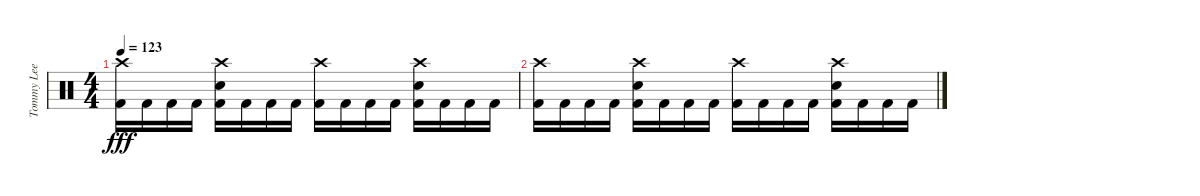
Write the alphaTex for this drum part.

\track ("Tommy Lee" "Tommy Lee") {instrument percussion}
\staff {score}
\articulation defaults
\ts (4 4)
\tempo 123
\clef neutral
\ks c
("Crash high (hit)" "Kick (hit) 2").16{dy fff} "Kick (hit) 2".16 "Kick (hit) 2".16 "Kick (hit) 2".16 ("Crash high (hit)" "Snare (hit) 2" "Kick (hit) 2").16 "Kick (hit) 2".16 "Kick (hit) 2".16 "Kick (hit) 2".16 ("Crash high (hit)" "Kick (hit) 2").16 "Kick (hit) 2".16 "Kick (hit) 2".16 "Kick (hit) 2".16 ("Crash high (hit)" "Snare (hit) 2" "Kick (hit) 2").16 "Kick (hit) 2".16 "Kick (hit) 2".16 "Kick (hit) 2".16 |
("Crash high (hit)" "Kick (hit) 2").16 "Kick (hit) 2".16 "Kick (hit) 2".16 "Kick (hit) 2".16 ("Crash high (hit)" "Snare (hit) 2" "Kick (hit) 2").16 "Kick (hit) 2".16 "Kick (hit) 2".16 "Kick (hit) 2".16 ("Crash high (hit)" "Kick (hit) 2").16 "Kick (hit) 2".16 "Kick (hit) 2".16 "Kick (hit) 2".16 ("Crash high (hit)" "Snare (hit) 2" "Kick (hit) 2").16 "Kick (hit) 2".16 "Kick (hit) 2".16 "Kick (hit) 2".16
